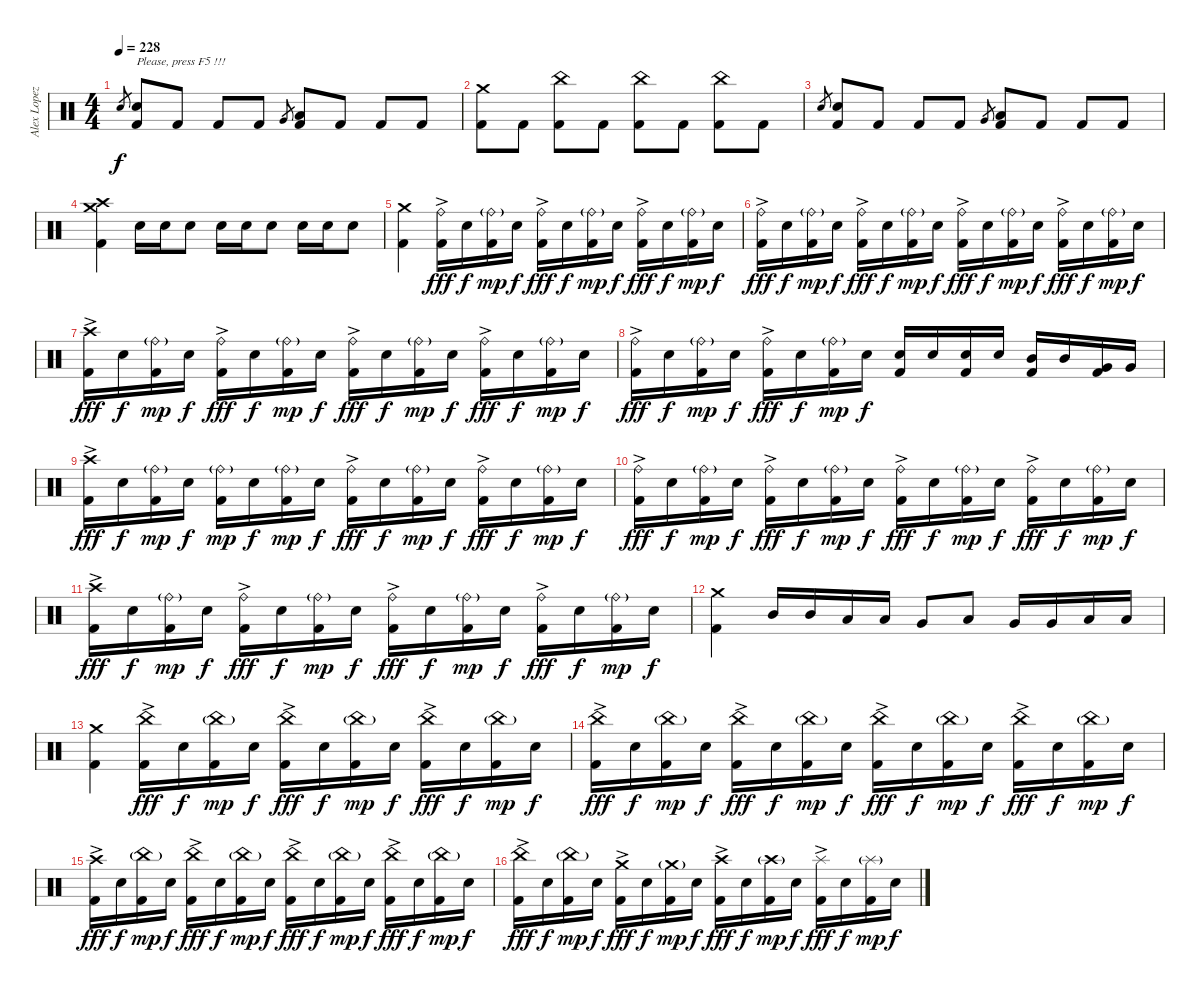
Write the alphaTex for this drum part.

\track ("Alex Lopez (Drums)" "Alex Lopez") {instrument percussion}
\staff {score}
\articulation defaults
\ts (4 4)
\tempo 228
\clef neutral
\ks c "Snare (hit) 2".8{gr dy f}
("Snare (hit) 2" "Kick (hit) 2").8{txt "Please, press F5 !!!"} "Kick (hit) 2".8 "Kick (hit) 2".8 "Kick (hit) 2".8 "Very Low Tom (hit)".8{gr} ("Low Tom (hit)" "Kick (hit) 2").8 "Kick (hit) 2".8 "Kick (hit) 2".8 "Kick (hit) 2".8 |
("Crash medium (hit)" "Kick (hit) 2").8 "Kick (hit) 2".8 ("China (hit)" "Kick (hit) 2").8 "Kick (hit) 2".8 ("China (hit)" "Kick (hit) 2").8 "Kick (hit) 2".8 ("China (hit)" "Kick (hit) 2").8 "Kick (hit) 2".8 |
"Snare (hit) 2".8{gr} ("Snare (hit) 2" "Kick (hit) 2").8 "Kick (hit) 2".8 "Kick (hit) 2".8 "Kick (hit) 2".8 "Very Low Tom (hit)".8{gr} ("Low Tom (hit)" "Kick (hit) 2").8 "Kick (hit) 2".8 "Kick (hit) 2".8 "Kick (hit) 2".8 |
("Crash medium (hit)" "Crash high (hit)" "Kick (hit) 2").4 "Snare (hit) 2".16 "Snare (hit) 2".16 "Snare (hit) 2".8 "Snare (hit) 2".16 "Snare (hit) 2".16 "Snare (hit) 2".8 "Snare (hit) 2".16 "Snare (hit) 2".16 "Snare (hit) 2".8 |
("Crash medium (hit)" "Kick (hit) 2").4 ("Ride (bell)"{ac} "Kick (hit) 2").16{dy fff} "Snare (hit) 2".16{dy f} ("Kick (hit) 2" "Ride (bell)"{g}).16{dy mp} "Snare (hit) 2".16{dy f} ("Ride (bell)"{ac} "Kick (hit) 2").16{dy fff} "Snare (hit) 2".16{dy f} ("Kick (hit) 2" "Ride (bell)"{g}).16{dy mp} "Snare (hit) 2".16{dy f} ("Ride (bell)"{ac} "Kick (hit) 2").16{dy fff} "Snare (hit) 2".16{dy f} ("Ride (bell)"{g} "Kick (hit) 2").16{dy mp} "Snare (hit) 2".16{dy f} |
("Ride (bell)"{ac} "Kick (hit) 2").16{dy fff} "Snare (hit) 2".16{dy f} ("Kick (hit) 2" "Ride (bell)"{g}).16{dy mp} "Snare (hit) 2".16{dy f} ("Ride (bell)"{ac} "Kick (hit) 2").16{dy fff} "Snare (hit) 2".16{dy f} ("Kick (hit) 2" "Ride (bell)"{g}).16{dy mp} "Snare (hit) 2".16{dy f} ("Ride (bell)"{ac} "Kick (hit) 2").16{dy fff} "Snare (hit) 2".16{dy f} ("Ride (bell)"{g} "Kick (hit) 2").16{dy mp} "Snare (hit) 2".16{dy f} ("Ride (bell)"{ac} "Kick (hit) 2").16{dy fff} "Snare (hit) 2".16{dy f} ("Kick (hit) 2" "Ride (bell)"{g}).16{dy mp} "Snare (hit) 2".16{dy f} |
("Crash high (hit)"{ac} "Kick (hit) 2").16{dy fff} "Snare (hit) 2".16{dy f} ("Kick (hit) 2" "Ride (bell)"{g}).16{dy mp} "Snare (hit) 2".16{dy f} ("Ride (bell)"{ac} "Kick (hit) 2").16{dy fff} "Snare (hit) 2".16{dy f} ("Kick (hit) 2" "Ride (bell)"{g}).16{dy mp} "Snare (hit) 2".16{dy f} ("Ride (bell)"{ac} "Kick (hit) 2").16{dy fff} "Snare (hit) 2".16{dy f} ("Ride (bell)"{g} "Kick (hit) 2").16{dy mp} "Snare (hit) 2".16{dy f} ("Ride (bell)"{ac} "Kick (hit) 2").16{dy fff} "Snare (hit) 2".16{dy f} ("Kick (hit) 2" "Ride (bell)"{g}).16{dy mp} "Snare (hit) 2".16{dy f} |
("Ride (bell)"{ac} "Kick (hit) 2").16{dy fff} "Snare (hit) 2".16{dy f} ("Kick (hit) 2" "Ride (bell)"{g}).16{dy mp} "Snare (hit) 2".16{dy f} ("Ride (bell)"{ac} "Kick (hit) 2").16{dy fff} "Snare (hit) 2".16{dy f} ("Kick (hit) 2" "Ride (bell)"{g}).16{dy mp} "Snare (hit) 2".16{dy f} ("Snare (hit) 2" "Kick (hit) 2").16 "Snare (hit) 2".16 ("Snare (hit) 2" "Kick (hit) 2").16 "Snare (hit) 2".16 ("Mid Tom (hit)" "Kick (hit) 2").16 "Mid Tom (hit)".16 ("Very Low Tom (hit)" "Kick (hit) 2").16 "Very Low Tom (hit)".16 |
("Crash high (hit)"{ac} "Kick (hit) 2").16{dy fff} "Snare (hit) 2".16{dy f} ("Kick (hit) 2" "Ride (bell)"{g}).16{dy mp} "Snare (hit) 2".16{dy f} ("Ride (bell)"{g} "Kick (hit) 2").16{dy mp} "Snare (hit) 2".16{dy f} ("Kick (hit) 2" "Ride (bell)"{g}).16{dy mp} "Snare (hit) 2".16{dy f} ("Ride (bell)"{ac} "Kick (hit) 2").16{dy fff} "Snare (hit) 2".16{dy f} ("Ride (bell)"{g} "Kick (hit) 2").16{dy mp} "Snare (hit) 2".16{dy f} ("Ride (bell)"{ac} "Kick (hit) 2").16{dy fff} "Snare (hit) 2".16{dy f} ("Kick (hit) 2" "Ride (bell)"{g}).16{dy mp} "Snare (hit) 2".16{dy f} |
("Ride (bell)"{ac} "Kick (hit) 2").16{dy fff} "Snare (hit) 2".16{dy f} ("Kick (hit) 2" "Ride (bell)"{g}).16{dy mp} "Snare (hit) 2".16{dy f} ("Ride (bell)"{ac} "Kick (hit) 2").16{dy fff} "Snare (hit) 2".16{dy f} ("Kick (hit) 2" "Ride (bell)"{g}).16{dy mp} "Snare (hit) 2".16{dy f} ("Ride (bell)"{ac} "Kick (hit) 2").16{dy fff} "Snare (hit) 2".16{dy f} ("Ride (bell)"{g} "Kick (hit) 2").16{dy mp} "Snare (hit) 2".16{dy f} ("Ride (bell)"{ac} "Kick (hit) 2").16{dy fff} "Snare (hit) 2".16{dy f} ("Kick (hit) 2" "Ride (bell)"{g}).16{dy mp} "Snare (hit) 2".16{dy f} |
("Crash high (hit)"{ac} "Kick (hit) 2").16{dy fff} "Snare (hit) 2".16{dy f} ("Kick (hit) 2" "Ride (bell)"{g}).16{dy mp} "Snare (hit) 2".16{dy f} ("Ride (bell)"{ac} "Kick (hit) 2").16{dy fff} "Snare (hit) 2".16{dy f} ("Kick (hit) 2" "Ride (bell)"{g}).16{dy mp} "Snare (hit) 2".16{dy f} ("Ride (bell)"{ac} "Kick (hit) 2").16{dy fff} "Snare (hit) 2".16{dy f} ("Ride (bell)"{g} "Kick (hit) 2").16{dy mp} "Snare (hit) 2".16{dy f} ("Ride (bell)"{ac} "Kick (hit) 2").16{dy fff} "Snare (hit) 2".16{dy f} ("Kick (hit) 2" "Ride (bell)"{g}).16{dy mp} "Snare (hit) 2".16{dy f} |
("Crash medium (hit)" "Kick (hit) 2").4 "Mid Tom (hit)".16 "Mid Tom (hit)".16 "Low Tom (hit)".16 "Low Tom (hit)".16 "Very Low Tom (hit)".8 "Low Floor Tom (hit)".8 "Very Low Tom (hit)".16 "Very Low Tom (hit)".16 "Low Floor Tom (hit)".16 "Low Floor Tom (hit)".16 |
("Crash medium (hit)" "Kick (hit) 2").4 ("China (hit)"{ac} "Kick (hit) 2").16{dy fff} "Snare (hit) 2".16{dy f} ("Kick (hit) 2" "China (hit)"{g}).16{dy mp} "Snare (hit) 2".16{dy f} ("China (hit)"{ac} "Kick (hit) 2").16{dy fff} "Snare (hit) 2".16{dy f} ("Kick (hit) 2" "China (hit)"{g}).16{dy mp} "Snare (hit) 2".16{dy f} ("China (hit)"{ac} "Kick (hit) 2").16{dy fff} "Snare (hit) 2".16{dy f} ("China (hit)"{g} "Kick (hit) 2").16{dy mp} "Snare (hit) 2".16{dy f} |
("China (hit)"{ac} "Kick (hit) 2").16{dy fff} "Snare (hit) 2".16{dy f} ("Kick (hit) 2" "China (hit)"{g}).16{dy mp} "Snare (hit) 2".16{dy f} ("China (hit)"{ac} "Kick (hit) 2").16{dy fff} "Snare (hit) 2".16{dy f} ("Kick (hit) 2" "China (hit)"{g}).16{dy mp} "Snare (hit) 2".16{dy f} ("China (hit)"{ac} "Kick (hit) 2").16{dy fff} "Snare (hit) 2".16{dy f} ("China (hit)"{g} "Kick (hit) 2").16{dy mp} "Snare (hit) 2".16{dy f} ("China (hit)"{ac} "Kick (hit) 2").16{dy fff} "Snare (hit) 2".16{dy f} ("Kick (hit) 2" "China (hit)"{g}).16{dy mp} "Snare (hit) 2".16{dy f} |
("Crash high (hit)"{ac} "Kick (hit) 2").16{dy fff} "Snare (hit) 2".16{dy f} ("Kick (hit) 2" "China (hit)"{g}).16{dy mp} "Snare (hit) 2".16{dy f} ("China (hit)"{ac} "Kick (hit) 2").16{dy fff} "Snare (hit) 2".16{dy f} ("Kick (hit) 2" "China (hit)"{g}).16{dy mp} "Snare (hit) 2".16{dy f} ("China (hit)"{ac} "Kick (hit) 2").16{dy fff} "Snare (hit) 2".16{dy f} ("China (hit)"{g} "Kick (hit) 2").16{dy mp} "Snare (hit) 2".16{dy f} ("China (hit)"{ac} "Kick (hit) 2").16{dy fff} "Snare (hit) 2".16{dy f} ("Kick (hit) 2" "China (hit)"{g}).16{dy mp} "Snare (hit) 2".16{dy f} |
("China (hit)"{ac} "Kick (hit) 2").16{dy fff} "Snare (hit) 2".16{dy f} ("Kick (hit) 2" "China (hit)"{g}).16{dy mp} "Snare (hit) 2".16{dy f} ("Crash medium (hit)"{ac} "Kick (hit) 2").16{dy fff} "Snare (hit) 2".16{dy f} ("Kick (hit) 2" "Crash medium (hit)"{g}).16{dy mp} "Snare (hit) 2".16{dy f} ("Crash high (hit)"{ac} "Kick (hit) 2").16{dy fff} "Snare (hit) 2".16{dy f} ("Crash high (hit)"{g} "Kick (hit) 2").16{dy mp} "Snare (hit) 2".16{dy f} ("Splash (hit)"{ac} "Kick (hit) 2").16{dy fff} "Snare (hit) 2".16{dy f} ("Kick (hit) 2" "Splash (hit)"{g}).16{dy mp} "Snare (hit) 2".16{dy f}
